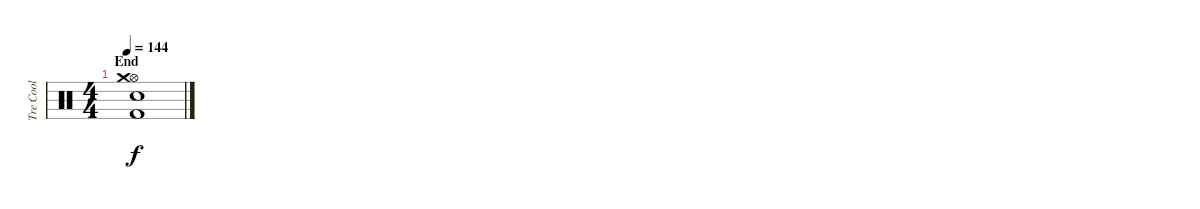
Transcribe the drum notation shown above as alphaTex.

\track ("Tre Cool" "Tre Cool") {instrument percussion}
\staff {score}
\articulation defaults
\ts (4 4)
\section ("" "End")
\tempo 144
\clef neutral
\ks c
("Hi-Hat (open)" "Crash medium (hit)" "Snare (hit) 2" "Kick (hit) 2").1{dy f}
